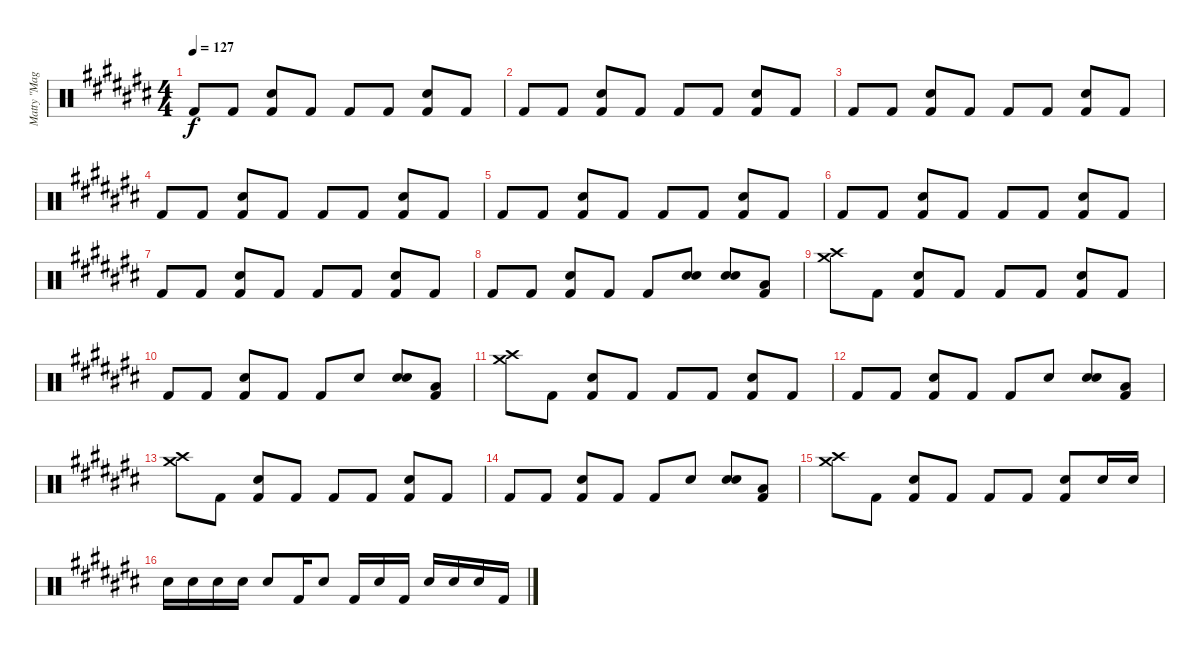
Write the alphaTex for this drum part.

\track ("Matty \"Magic\" Datsun (Drums)" "Matty \"Mag") {instrument percussion}
\staff {score}
\articulation defaults
\ts (4 4)
\tempo 127
\clef neutral
\ks a#minor "Kick (hit) 2".8{dy f} "Kick (hit) 2".8
("Kick (hit) 2" "Electric Snare (hit)").8 "Kick (hit) 2".8 "Kick (hit) 2".8 "Kick (hit) 2".8 ("Kick (hit) 2" "Electric Snare (hit)").8 "Kick (hit) 2".8 |
"Kick (hit) 2".8 "Kick (hit) 2".8 ("Kick (hit) 2" "Electric Snare (hit)").8 "Kick (hit) 2".8 "Kick (hit) 2".8 "Kick (hit) 2".8 ("Kick (hit) 2" "Electric Snare (hit)").8 "Kick (hit) 2".8 |
"Kick (hit) 2".8 "Kick (hit) 2".8 ("Kick (hit) 2" "Electric Snare (hit)").8 "Kick (hit) 2".8 "Kick (hit) 2".8 "Kick (hit) 2".8 ("Kick (hit) 2" "Electric Snare (hit)").8 "Kick (hit) 2".8 |
"Kick (hit) 2".8 "Kick (hit) 2".8 ("Kick (hit) 2" "Electric Snare (hit)").8 "Kick (hit) 2".8 "Kick (hit) 2".8 "Kick (hit) 2".8 ("Kick (hit) 2" "Electric Snare (hit)").8 "Kick (hit) 2".8 |
"Kick (hit) 2".8 "Kick (hit) 2".8 ("Kick (hit) 2" "Electric Snare (hit)").8 "Kick (hit) 2".8 "Kick (hit) 2".8 "Kick (hit) 2".8 ("Kick (hit) 2" "Electric Snare (hit)").8 "Kick (hit) 2".8 |
"Kick (hit) 2".8 "Kick (hit) 2".8 ("Kick (hit) 2" "Electric Snare (hit)").8 "Kick (hit) 2".8 "Kick (hit) 2".8 "Kick (hit) 2".8 ("Kick (hit) 2" "Electric Snare (hit)").8 "Kick (hit) 2".8 |
"Kick (hit) 2".8 "Kick (hit) 2".8 ("Kick (hit) 2" "Electric Snare (hit)").8 "Kick (hit) 2".8 "Kick (hit) 2".8 "Kick (hit) 2".8 ("Kick (hit) 2" "Electric Snare (hit)").8 "Kick (hit) 2".8 |
"Kick (hit) 2".8 "Kick (hit) 2".8 ("Kick (hit) 2" "Electric Snare (hit)").8 "Kick (hit) 2".8 "Kick (hit) 2".8 ("Electric Snare (hit)" "Electric Snare (hit)").8 ("Electric Snare (hit)" "Electric Snare (hit)").8 ("Kick (hit) 2" "Low Tom (hit)").8 |
("Crash medium (hit)" "Crash high (hit)").8 "Kick (hit) 2".8 ("Kick (hit) 2" "Electric Snare (hit)").8 "Kick (hit) 2".8 "Kick (hit) 2".8 "Kick (hit) 2".8 ("Kick (hit) 2" "Electric Snare (hit)").8 "Kick (hit) 2".8 |
"Kick (hit) 2".8 "Kick (hit) 2".8 ("Kick (hit) 2" "Electric Snare (hit)").8 "Kick (hit) 2".8 "Kick (hit) 2".8 "Electric Snare (hit)".8 ("Electric Snare (hit)" "Electric Snare (hit)").8 ("Kick (hit) 2" "Low Tom (hit)").8 |
("Crash medium (hit)" "Crash high (hit)").8 "Kick (hit) 2".8 ("Kick (hit) 2" "Electric Snare (hit)").8 "Kick (hit) 2".8 "Kick (hit) 2".8 "Kick (hit) 2".8 ("Kick (hit) 2" "Electric Snare (hit)").8 "Kick (hit) 2".8 |
"Kick (hit) 2".8 "Kick (hit) 2".8 ("Kick (hit) 2" "Electric Snare (hit)").8 "Kick (hit) 2".8 "Kick (hit) 2".8 "Electric Snare (hit)".8 ("Electric Snare (hit)" "Electric Snare (hit)").8 ("Kick (hit) 2" "Low Tom (hit)").8 |
("Crash medium (hit)" "Crash high (hit)").8 "Kick (hit) 2".8 ("Kick (hit) 2" "Electric Snare (hit)").8 "Kick (hit) 2".8 "Kick (hit) 2".8 "Kick (hit) 2".8 ("Kick (hit) 2" "Electric Snare (hit)").8 "Kick (hit) 2".8 |
"Kick (hit) 2".8 "Kick (hit) 2".8 ("Kick (hit) 2" "Electric Snare (hit)").8 "Kick (hit) 2".8 "Kick (hit) 2".8 "Electric Snare (hit)".8 ("Electric Snare (hit)" "Electric Snare (hit)").8 ("Kick (hit) 2" "Low Tom (hit)").8 |
("Crash medium (hit)" "Crash high (hit)").8 "Kick (hit) 2".8 ("Kick (hit) 2" "Electric Snare (hit)").8 "Kick (hit) 2".8 "Kick (hit) 2".8 "Kick (hit) 2".8 ("Kick (hit) 2" "Electric Snare (hit)").8 "Electric Snare (hit)".16 "Electric Snare (hit)".16 |
"Electric Snare (hit)".16 "Electric Snare (hit)".16 "Electric Snare (hit)".16 "Electric Snare (hit)".16 "Electric Snare (hit)".8 "Kick (hit) 2".16 "Electric Snare (hit)".8 "Kick (hit) 2".16 "Electric Snare (hit)".16 "Kick (hit) 2".16 "Electric Snare (hit)".16 "Electric Snare (hit)".16 "Electric Snare (hit)".16 "Kick (hit) 2".16
